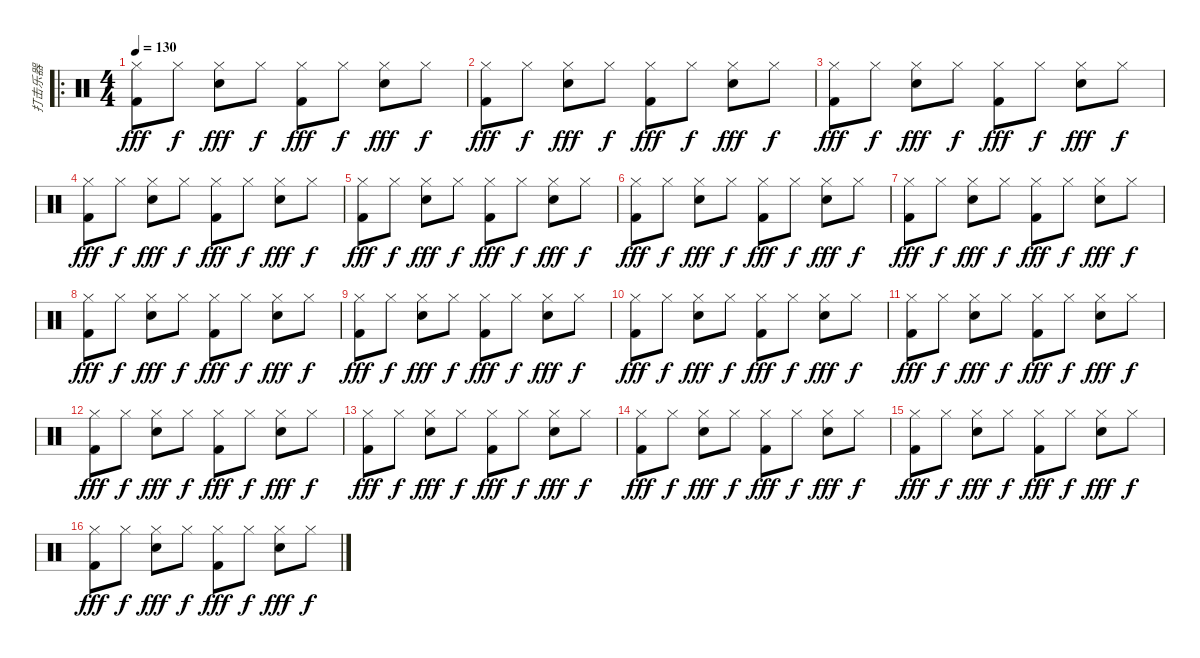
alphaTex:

\track ("打击乐器" "打击乐器") {instrument percussion}
\staff {score}
\articulation defaults
\ro
\ts (4 4)
\tempo 130
\clef neutral
\ks c
("Hi-Hat (closed)" "Kick (hit) 2").8{dy fff} "Hi-Hat (closed)".8{dy f} ("Hi-Hat (closed)" "Electric Snare (hit)").8{dy fff} "Hi-Hat (closed)".8{dy f} ("Hi-Hat (closed)" "Kick (hit) 2").8{dy fff} "Hi-Hat (closed)".8{dy f} ("Hi-Hat (closed)" "Electric Snare (hit)").8{dy fff} "Hi-Hat (closed)".8{dy f} |
("Hi-Hat (closed)" "Kick (hit) 2").8{dy fff} "Hi-Hat (closed)".8{dy f} ("Hi-Hat (closed)" "Electric Snare (hit)").8{dy fff} "Hi-Hat (closed)".8{dy f} ("Hi-Hat (closed)" "Kick (hit) 2").8{dy fff} "Hi-Hat (closed)".8{dy f} ("Hi-Hat (closed)" "Electric Snare (hit)").8{dy fff} "Hi-Hat (closed)".8{dy f} |
("Hi-Hat (closed)" "Kick (hit) 2").8{dy fff} "Hi-Hat (closed)".8{dy f} ("Hi-Hat (closed)" "Electric Snare (hit)").8{dy fff} "Hi-Hat (closed)".8{dy f} ("Hi-Hat (closed)" "Kick (hit) 2").8{dy fff} "Hi-Hat (closed)".8{dy f} ("Hi-Hat (closed)" "Electric Snare (hit)").8{dy fff} "Hi-Hat (closed)".8{dy f} |
("Hi-Hat (closed)" "Kick (hit) 2").8{dy fff} "Hi-Hat (closed)".8{dy f} ("Hi-Hat (closed)" "Electric Snare (hit)").8{dy fff} "Hi-Hat (closed)".8{dy f} ("Hi-Hat (closed)" "Kick (hit) 2").8{dy fff} "Hi-Hat (closed)".8{dy f} ("Hi-Hat (closed)" "Electric Snare (hit)").8{dy fff} "Hi-Hat (closed)".8{dy f} |
("Hi-Hat (closed)" "Kick (hit) 2").8{dy fff} "Hi-Hat (closed)".8{dy f} ("Hi-Hat (closed)" "Electric Snare (hit)").8{dy fff} "Hi-Hat (closed)".8{dy f} ("Hi-Hat (closed)" "Kick (hit) 2").8{dy fff} "Hi-Hat (closed)".8{dy f} ("Hi-Hat (closed)" "Electric Snare (hit)").8{dy fff} "Hi-Hat (closed)".8{dy f} |
("Hi-Hat (closed)" "Kick (hit) 2").8{dy fff} "Hi-Hat (closed)".8{dy f} ("Hi-Hat (closed)" "Electric Snare (hit)").8{dy fff} "Hi-Hat (closed)".8{dy f} ("Hi-Hat (closed)" "Kick (hit) 2").8{dy fff} "Hi-Hat (closed)".8{dy f} ("Hi-Hat (closed)" "Electric Snare (hit)").8{dy fff} "Hi-Hat (closed)".8{dy f} |
("Hi-Hat (closed)" "Kick (hit) 2").8{dy fff} "Hi-Hat (closed)".8{dy f} ("Hi-Hat (closed)" "Electric Snare (hit)").8{dy fff} "Hi-Hat (closed)".8{dy f} ("Hi-Hat (closed)" "Kick (hit) 2").8{dy fff} "Hi-Hat (closed)".8{dy f} ("Hi-Hat (closed)" "Electric Snare (hit)").8{dy fff} "Hi-Hat (closed)".8{dy f} |
("Hi-Hat (closed)" "Kick (hit) 2").8{dy fff} "Hi-Hat (closed)".8{dy f} ("Hi-Hat (closed)" "Electric Snare (hit)").8{dy fff} "Hi-Hat (closed)".8{dy f} ("Hi-Hat (closed)" "Kick (hit) 2").8{dy fff} "Hi-Hat (closed)".8{dy f} ("Hi-Hat (closed)" "Electric Snare (hit)").8{dy fff} "Hi-Hat (closed)".8{dy f} |
("Hi-Hat (closed)" "Kick (hit) 2").8{dy fff} "Hi-Hat (closed)".8{dy f} ("Hi-Hat (closed)" "Electric Snare (hit)").8{dy fff} "Hi-Hat (closed)".8{dy f} ("Hi-Hat (closed)" "Kick (hit) 2").8{dy fff} "Hi-Hat (closed)".8{dy f} ("Hi-Hat (closed)" "Electric Snare (hit)").8{dy fff} "Hi-Hat (closed)".8{dy f} |
("Hi-Hat (closed)" "Kick (hit) 2").8{dy fff} "Hi-Hat (closed)".8{dy f} ("Hi-Hat (closed)" "Electric Snare (hit)").8{dy fff} "Hi-Hat (closed)".8{dy f} ("Hi-Hat (closed)" "Kick (hit) 2").8{dy fff} "Hi-Hat (closed)".8{dy f} ("Hi-Hat (closed)" "Electric Snare (hit)").8{dy fff} "Hi-Hat (closed)".8{dy f} |
("Hi-Hat (closed)" "Kick (hit) 2").8{dy fff} "Hi-Hat (closed)".8{dy f} ("Hi-Hat (closed)" "Electric Snare (hit)").8{dy fff} "Hi-Hat (closed)".8{dy f} ("Hi-Hat (closed)" "Kick (hit) 2").8{dy fff} "Hi-Hat (closed)".8{dy f} ("Hi-Hat (closed)" "Electric Snare (hit)").8{dy fff} "Hi-Hat (closed)".8{dy f} |
("Hi-Hat (closed)" "Kick (hit) 2").8{dy fff} "Hi-Hat (closed)".8{dy f} ("Hi-Hat (closed)" "Electric Snare (hit)").8{dy fff} "Hi-Hat (closed)".8{dy f} ("Hi-Hat (closed)" "Kick (hit) 2").8{dy fff} "Hi-Hat (closed)".8{dy f} ("Hi-Hat (closed)" "Electric Snare (hit)").8{dy fff} "Hi-Hat (closed)".8{dy f} |
("Hi-Hat (closed)" "Kick (hit) 2").8{dy fff} "Hi-Hat (closed)".8{dy f} ("Hi-Hat (closed)" "Electric Snare (hit)").8{dy fff} "Hi-Hat (closed)".8{dy f} ("Hi-Hat (closed)" "Kick (hit) 2").8{dy fff} "Hi-Hat (closed)".8{dy f} ("Hi-Hat (closed)" "Electric Snare (hit)").8{dy fff} "Hi-Hat (closed)".8{dy f} |
("Hi-Hat (closed)" "Kick (hit) 2").8{dy fff} "Hi-Hat (closed)".8{dy f} ("Hi-Hat (closed)" "Electric Snare (hit)").8{dy fff} "Hi-Hat (closed)".8{dy f} ("Hi-Hat (closed)" "Kick (hit) 2").8{dy fff} "Hi-Hat (closed)".8{dy f} ("Hi-Hat (closed)" "Electric Snare (hit)").8{dy fff} "Hi-Hat (closed)".8{dy f} |
("Hi-Hat (closed)" "Kick (hit) 2").8{dy fff} "Hi-Hat (closed)".8{dy f} ("Hi-Hat (closed)" "Electric Snare (hit)").8{dy fff} "Hi-Hat (closed)".8{dy f} ("Hi-Hat (closed)" "Kick (hit) 2").8{dy fff} "Hi-Hat (closed)".8{dy f} ("Hi-Hat (closed)" "Electric Snare (hit)").8{dy fff} "Hi-Hat (closed)".8{dy f} |
("Hi-Hat (closed)" "Kick (hit) 2").8{dy fff} "Hi-Hat (closed)".8{dy f} ("Hi-Hat (closed)" "Electric Snare (hit)").8{dy fff} "Hi-Hat (closed)".8{dy f} ("Hi-Hat (closed)" "Kick (hit) 2").8{dy fff} "Hi-Hat (closed)".8{dy f} ("Hi-Hat (closed)" "Electric Snare (hit)").8{dy fff} "Hi-Hat (closed)".8{dy f}
